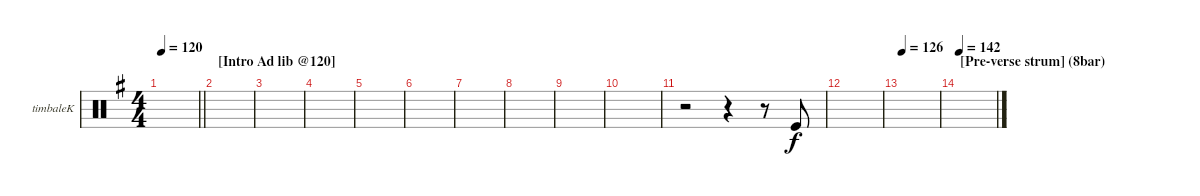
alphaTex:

\bracketExtendMode groupsimilarinstruments
\firstSystemTrackNameOrientation horizontal
\otherSystemsTrackNameOrientation horizontal
\track ("Timbale" "timbaleK") {instrument percussion}
\staff {score}
\articulation defaults
\ts (4 4)
\tempo 120
\clef neutral
\barLineRight lightlight
\ks eminor
|
\section ("" "[Intro Ad lib @120]")
|
|
|
|
|
|
|
|
|
r.2 r.4 r.8 "Kick (hit)".8 |
|
\tempo 126
|
\section ("" "[Pre-verse strum] (8bar)")
\tempo (142 0.00625)
